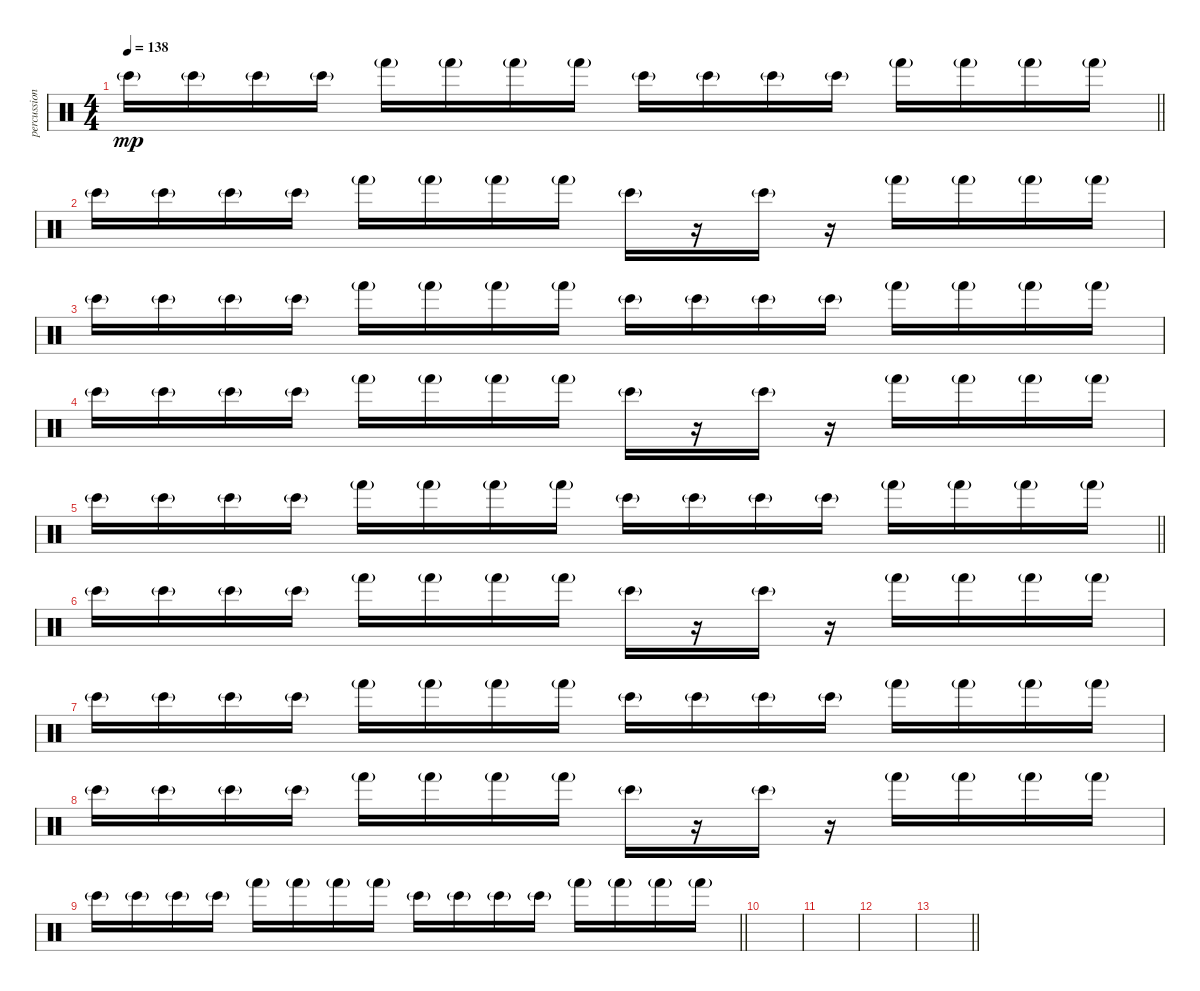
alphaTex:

\track ("percussion" "percussion") {instrument percussion}
\staff {score}
\articulation defaults
\ts (4 4)
\tempo 138
\clef neutral
\barLineRight lightlight
\ks c "Bongo High (hit)"{g}.16{dy mp} "Bongo High (hit)"{g}.16 "Bongo High (hit)"{g}.16 "Bongo High (hit)"{g}.16 "Hand (hit)"{g}.16 "Hand (hit)"{g}.16 "Hand (hit)"{g}.16 "Hand (hit)"{g}.16 "Bongo High (hit)"{g}.16 "Bongo High (hit)"{g}.16 "Bongo High (hit)"{g}.16 "Bongo High (hit)"{g}.16 "Hand (hit)"{g}.16 "Hand (hit)"{g}.16 "Hand (hit)"{g}.16 "Hand (hit)"{g}.16
|
"Bongo High (hit)"{g}.16 "Bongo High (hit)"{g}.16 "Bongo High (hit)"{g}.16 "Bongo High (hit)"{g}.16 "Hand (hit)"{g}.16 "Hand (hit)"{g}.16 "Hand (hit)"{g}.16 "Hand (hit)"{g}.16 "Bongo High (hit)"{g}.16 r.16 "Bongo High (hit)"{g}.16 r.16 "Hand (hit)"{g}.16 "Hand (hit)"{g}.16 "Hand (hit)"{g}.16 "Hand (hit)"{g}.16 |
"Bongo High (hit)"{g}.16 "Bongo High (hit)"{g}.16 "Bongo High (hit)"{g}.16 "Bongo High (hit)"{g}.16 "Hand (hit)"{g}.16 "Hand (hit)"{g}.16 "Hand (hit)"{g}.16 "Hand (hit)"{g}.16 "Bongo High (hit)"{g}.16 "Bongo High (hit)"{g}.16 "Bongo High (hit)"{g}.16 "Bongo High (hit)"{g}.16 "Hand (hit)"{g}.16 "Hand (hit)"{g}.16 "Hand (hit)"{g}.16 "Hand (hit)"{g}.16 |
"Bongo High (hit)"{g}.16 "Bongo High (hit)"{g}.16 "Bongo High (hit)"{g}.16 "Bongo High (hit)"{g}.16 "Hand (hit)"{g}.16 "Hand (hit)"{g}.16 "Hand (hit)"{g}.16 "Hand (hit)"{g}.16 "Bongo High (hit)"{g}.16 r.16 "Bongo High (hit)"{g}.16 r.16 "Hand (hit)"{g}.16 "Hand (hit)"{g}.16 "Hand (hit)"{g}.16 "Hand (hit)"{g}.16 |
\barLineRight lightlight "Bongo High (hit)"{g}.16 "Bongo High (hit)"{g}.16 "Bongo High (hit)"{g}.16 "Bongo High (hit)"{g}.16 "Hand (hit)"{g}.16 "Hand (hit)"{g}.16 "Hand (hit)"{g}.16 "Hand (hit)"{g}.16 "Bongo High (hit)"{g}.16 "Bongo High (hit)"{g}.16 "Bongo High (hit)"{g}.16 "Bongo High (hit)"{g}.16 "Hand (hit)"{g}.16 "Hand (hit)"{g}.16 "Hand (hit)"{g}.16 "Hand (hit)"{g}.16
|
"Bongo High (hit)"{g}.16 "Bongo High (hit)"{g}.16 "Bongo High (hit)"{g}.16 "Bongo High (hit)"{g}.16 "Hand (hit)"{g}.16 "Hand (hit)"{g}.16 "Hand (hit)"{g}.16 "Hand (hit)"{g}.16 "Bongo High (hit)"{g}.16 r.16 "Bongo High (hit)"{g}.16 r.16 "Hand (hit)"{g}.16 "Hand (hit)"{g}.16 "Hand (hit)"{g}.16 "Hand (hit)"{g}.16 |
"Bongo High (hit)"{g}.16 "Bongo High (hit)"{g}.16 "Bongo High (hit)"{g}.16 "Bongo High (hit)"{g}.16 "Hand (hit)"{g}.16 "Hand (hit)"{g}.16 "Hand (hit)"{g}.16 "Hand (hit)"{g}.16 "Bongo High (hit)"{g}.16 "Bongo High (hit)"{g}.16 "Bongo High (hit)"{g}.16 "Bongo High (hit)"{g}.16 "Hand (hit)"{g}.16 "Hand (hit)"{g}.16 "Hand (hit)"{g}.16 "Hand (hit)"{g}.16 |
"Bongo High (hit)"{g}.16 "Bongo High (hit)"{g}.16 "Bongo High (hit)"{g}.16 "Bongo High (hit)"{g}.16 "Hand (hit)"{g}.16 "Hand (hit)"{g}.16 "Hand (hit)"{g}.16 "Hand (hit)"{g}.16 "Bongo High (hit)"{g}.16 r.16 "Bongo High (hit)"{g}.16 r.16 "Hand (hit)"{g}.16 "Hand (hit)"{g}.16 "Hand (hit)"{g}.16 "Hand (hit)"{g}.16 |
\barLineRight lightlight "Bongo High (hit)"{g}.16 "Bongo High (hit)"{g}.16 "Bongo High (hit)"{g}.16 "Bongo High (hit)"{g}.16 "Hand (hit)"{g}.16 "Hand (hit)"{g}.16 "Hand (hit)"{g}.16 "Hand (hit)"{g}.16 "Bongo High (hit)"{g}.16 "Bongo High (hit)"{g}.16 "Bongo High (hit)"{g}.16 "Bongo High (hit)"{g}.16 "Hand (hit)"{g}.16 "Hand (hit)"{g}.16 "Hand (hit)"{g}.16 "Hand (hit)"{g}.16
|
|
|
|
\barLineRight lightlight
